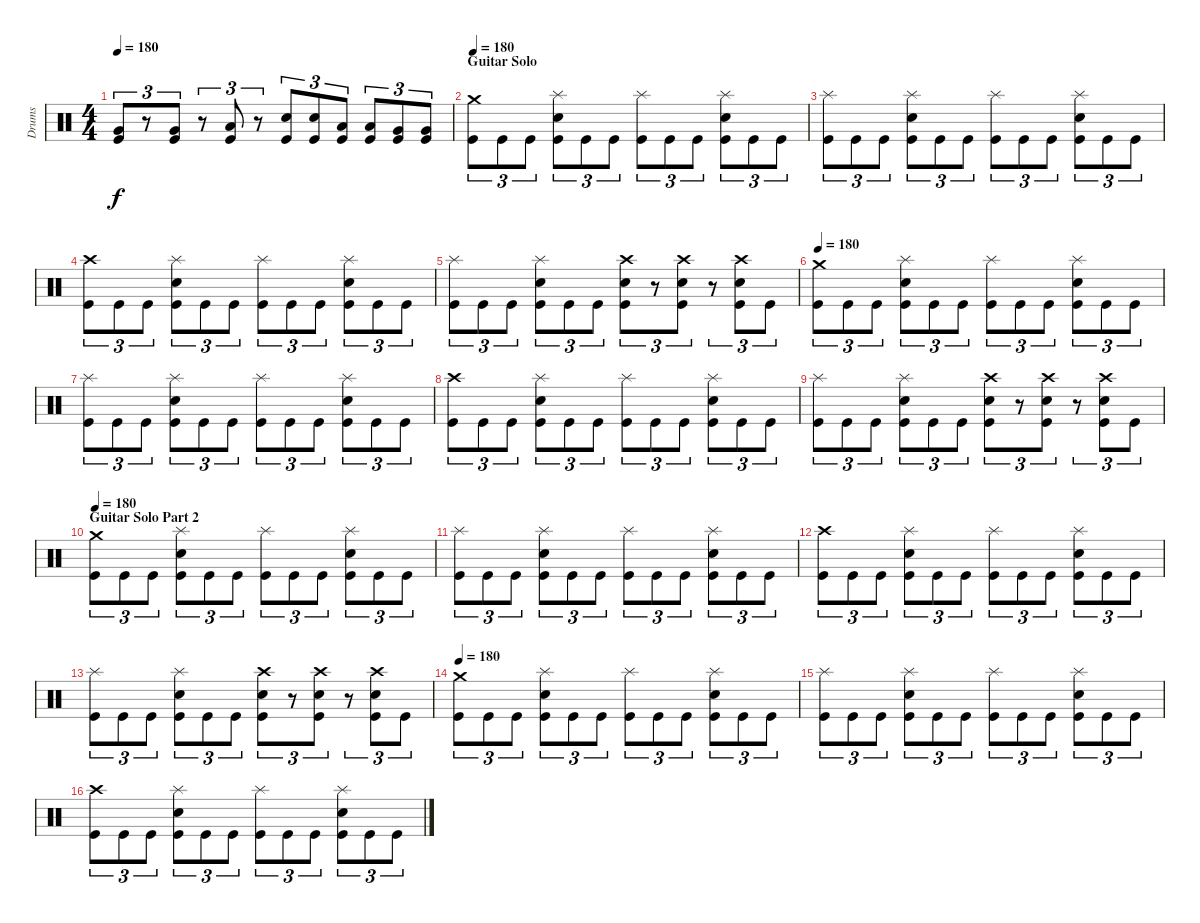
\track ("Drums" "Drums") {instrument percussion}
\staff {score}
\articulation defaults
\ts (4 4)
\tempo 180
\clef neutral
\ks c
("Very Low Tom (hit)" "Kick (hit)").8{tu (3 2) dy f} r.8{tu (3 2)} ("Very Low Tom (hit)" "Kick (hit)").8{tu (3 2)} r.8{tu (3 2)} ("Low Floor Tom (hit)" "Kick (hit)").8{tu (3 2)} r.8{tu (3 2)} ("Electric Snare (hit)" "Kick (hit)").8{tu (3 2)} ("Electric Snare (hit)" "Kick (hit)").8{tu (3 2)} ("Low Tom (hit)" "Kick (hit)").8{tu (3 2)} ("Low Tom (hit)" "Kick (hit)").8{tu (3 2)} ("Very Low Tom (hit)" "Kick (hit)").8{tu (3 2)} ("Very Low Tom (hit)" "Kick (hit)").8{tu (3 2)} |
\section ("" "Guitar Solo")
\tempo 180
("Crash medium (hit)" "Kick (hit)").8{tu (3 2)} "Kick (hit)".8{tu (3 2)} "Kick (hit)".8{tu (3 2)} ("Splash (hit)" "Electric Snare (hit)" "Kick (hit)").8{tu (3 2)} "Kick (hit)".8{tu (3 2)} "Kick (hit)".8{tu (3 2)} ("Splash (hit)" "Kick (hit)").8{tu (3 2)} "Kick (hit)".8{tu (3 2)} "Kick (hit)".8{tu (3 2)} ("Splash (hit)" "Electric Snare (hit)" "Kick (hit)").8{tu (3 2)} "Kick (hit)".8{tu (3 2)} "Kick (hit)".8{tu (3 2)} |
("Splash (hit)" "Kick (hit)").8{tu (3 2)} "Kick (hit)".8{tu (3 2)} "Kick (hit)".8{tu (3 2)} ("Splash (hit)" "Electric Snare (hit)" "Kick (hit)").8{tu (3 2)} "Kick (hit)".8{tu (3 2)} "Kick (hit)".8{tu (3 2)} ("Splash (hit)" "Kick (hit)").8{tu (3 2)} "Kick (hit)".8{tu (3 2)} "Kick (hit)".8{tu (3 2)} ("Splash (hit)" "Electric Snare (hit)" "Kick (hit)").8{tu (3 2)} "Kick (hit)".8{tu (3 2)} "Kick (hit)".8{tu (3 2)} |
("Crash high (hit)" "Kick (hit)").8{tu (3 2)} "Kick (hit)".8{tu (3 2)} "Kick (hit)".8{tu (3 2)} ("Splash (hit)" "Electric Snare (hit)" "Kick (hit)").8{tu (3 2)} "Kick (hit)".8{tu (3 2)} "Kick (hit)".8{tu (3 2)} ("Splash (hit)" "Kick (hit)").8{tu (3 2)} "Kick (hit)".8{tu (3 2)} "Kick (hit)".8{tu (3 2)} ("Splash (hit)" "Electric Snare (hit)" "Kick (hit)").8{tu (3 2)} "Kick (hit)".8{tu (3 2)} "Kick (hit)".8{tu (3 2)} |
("Splash (hit)" "Kick (hit)").8{tu (3 2)} "Kick (hit)".8{tu (3 2)} "Kick (hit)".8{tu (3 2)} ("Splash (hit)" "Electric Snare (hit)" "Kick (hit)").8{tu (3 2)} "Kick (hit)".8{tu (3 2)} "Kick (hit)".8{tu (3 2)} ("Crash high (hit)" "Electric Snare (hit)" "Kick (hit)").8{tu (3 2)} r.8{tu (3 2)} ("Crash high (hit)" "Electric Snare (hit)" "Kick (hit)").8{tu (3 2)} r.8{tu (3 2)} ("Crash high (hit)" "Electric Snare (hit)" "Kick (hit)").8{tu (3 2)} "Kick (hit)".8{tu (3 2)} |
\tempo 180
("Crash medium (hit)" "Kick (hit)").8{tu (3 2)} "Kick (hit)".8{tu (3 2)} "Kick (hit)".8{tu (3 2)} ("Splash (hit)" "Electric Snare (hit)" "Kick (hit)").8{tu (3 2)} "Kick (hit)".8{tu (3 2)} "Kick (hit)".8{tu (3 2)} ("Splash (hit)" "Kick (hit)").8{tu (3 2)} "Kick (hit)".8{tu (3 2)} "Kick (hit)".8{tu (3 2)} ("Splash (hit)" "Electric Snare (hit)" "Kick (hit)").8{tu (3 2)} "Kick (hit)".8{tu (3 2)} "Kick (hit)".8{tu (3 2)} |
("Splash (hit)" "Kick (hit)").8{tu (3 2)} "Kick (hit)".8{tu (3 2)} "Kick (hit)".8{tu (3 2)} ("Splash (hit)" "Electric Snare (hit)" "Kick (hit)").8{tu (3 2)} "Kick (hit)".8{tu (3 2)} "Kick (hit)".8{tu (3 2)} ("Splash (hit)" "Kick (hit)").8{tu (3 2)} "Kick (hit)".8{tu (3 2)} "Kick (hit)".8{tu (3 2)} ("Splash (hit)" "Electric Snare (hit)" "Kick (hit)").8{tu (3 2)} "Kick (hit)".8{tu (3 2)} "Kick (hit)".8{tu (3 2)} |
("Crash high (hit)" "Kick (hit)").8{tu (3 2)} "Kick (hit)".8{tu (3 2)} "Kick (hit)".8{tu (3 2)} ("Splash (hit)" "Electric Snare (hit)" "Kick (hit)").8{tu (3 2)} "Kick (hit)".8{tu (3 2)} "Kick (hit)".8{tu (3 2)} ("Splash (hit)" "Kick (hit)").8{tu (3 2)} "Kick (hit)".8{tu (3 2)} "Kick (hit)".8{tu (3 2)} ("Splash (hit)" "Electric Snare (hit)" "Kick (hit)").8{tu (3 2)} "Kick (hit)".8{tu (3 2)} "Kick (hit)".8{tu (3 2)} |
("Splash (hit)" "Kick (hit)").8{tu (3 2)} "Kick (hit)".8{tu (3 2)} "Kick (hit)".8{tu (3 2)} ("Splash (hit)" "Electric Snare (hit)" "Kick (hit)").8{tu (3 2)} "Kick (hit)".8{tu (3 2)} "Kick (hit)".8{tu (3 2)} ("Crash high (hit)" "Electric Snare (hit)" "Kick (hit)").8{tu (3 2)} r.8{tu (3 2)} ("Crash high (hit)" "Electric Snare (hit)" "Kick (hit)").8{tu (3 2)} r.8{tu (3 2)} ("Crash high (hit)" "Electric Snare (hit)" "Kick (hit)").8{tu (3 2)} "Kick (hit)".8{tu (3 2)} |
\section ("" "Guitar Solo Part 2")
\tempo 180
("Crash medium (hit)" "Kick (hit)").8{tu (3 2)} "Kick (hit)".8{tu (3 2)} "Kick (hit)".8{tu (3 2)} ("Splash (hit)" "Electric Snare (hit)" "Kick (hit)").8{tu (3 2)} "Kick (hit)".8{tu (3 2)} "Kick (hit)".8{tu (3 2)} ("Splash (hit)" "Kick (hit)").8{tu (3 2)} "Kick (hit)".8{tu (3 2)} "Kick (hit)".8{tu (3 2)} ("Splash (hit)" "Electric Snare (hit)" "Kick (hit)").8{tu (3 2)} "Kick (hit)".8{tu (3 2)} "Kick (hit)".8{tu (3 2)} |
("Splash (hit)" "Kick (hit)").8{tu (3 2)} "Kick (hit)".8{tu (3 2)} "Kick (hit)".8{tu (3 2)} ("Splash (hit)" "Electric Snare (hit)" "Kick (hit)").8{tu (3 2)} "Kick (hit)".8{tu (3 2)} "Kick (hit)".8{tu (3 2)} ("Splash (hit)" "Kick (hit)").8{tu (3 2)} "Kick (hit)".8{tu (3 2)} "Kick (hit)".8{tu (3 2)} ("Splash (hit)" "Electric Snare (hit)" "Kick (hit)").8{tu (3 2)} "Kick (hit)".8{tu (3 2)} "Kick (hit)".8{tu (3 2)} |
("Crash high (hit)" "Kick (hit)").8{tu (3 2)} "Kick (hit)".8{tu (3 2)} "Kick (hit)".8{tu (3 2)} ("Splash (hit)" "Electric Snare (hit)" "Kick (hit)").8{tu (3 2)} "Kick (hit)".8{tu (3 2)} "Kick (hit)".8{tu (3 2)} ("Splash (hit)" "Kick (hit)").8{tu (3 2)} "Kick (hit)".8{tu (3 2)} "Kick (hit)".8{tu (3 2)} ("Splash (hit)" "Electric Snare (hit)" "Kick (hit)").8{tu (3 2)} "Kick (hit)".8{tu (3 2)} "Kick (hit)".8{tu (3 2)} |
("Splash (hit)" "Kick (hit)").8{tu (3 2)} "Kick (hit)".8{tu (3 2)} "Kick (hit)".8{tu (3 2)} ("Splash (hit)" "Electric Snare (hit)" "Kick (hit)").8{tu (3 2)} "Kick (hit)".8{tu (3 2)} "Kick (hit)".8{tu (3 2)} ("Crash high (hit)" "Electric Snare (hit)" "Kick (hit)").8{tu (3 2)} r.8{tu (3 2)} ("Crash high (hit)" "Electric Snare (hit)" "Kick (hit)").8{tu (3 2)} r.8{tu (3 2)} ("Crash high (hit)" "Electric Snare (hit)" "Kick (hit)").8{tu (3 2)} "Kick (hit)".8{tu (3 2)} |
\tempo 180
("Crash medium (hit)" "Kick (hit)").8{tu (3 2)} "Kick (hit)".8{tu (3 2)} "Kick (hit)".8{tu (3 2)} ("Splash (hit)" "Electric Snare (hit)" "Kick (hit)").8{tu (3 2)} "Kick (hit)".8{tu (3 2)} "Kick (hit)".8{tu (3 2)} ("Splash (hit)" "Kick (hit)").8{tu (3 2)} "Kick (hit)".8{tu (3 2)} "Kick (hit)".8{tu (3 2)} ("Splash (hit)" "Electric Snare (hit)" "Kick (hit)").8{tu (3 2)} "Kick (hit)".8{tu (3 2)} "Kick (hit)".8{tu (3 2)} |
("Splash (hit)" "Kick (hit)").8{tu (3 2)} "Kick (hit)".8{tu (3 2)} "Kick (hit)".8{tu (3 2)} ("Splash (hit)" "Electric Snare (hit)" "Kick (hit)").8{tu (3 2)} "Kick (hit)".8{tu (3 2)} "Kick (hit)".8{tu (3 2)} ("Splash (hit)" "Kick (hit)").8{tu (3 2)} "Kick (hit)".8{tu (3 2)} "Kick (hit)".8{tu (3 2)} ("Splash (hit)" "Electric Snare (hit)" "Kick (hit)").8{tu (3 2)} "Kick (hit)".8{tu (3 2)} "Kick (hit)".8{tu (3 2)} |
("Crash high (hit)" "Kick (hit)").8{tu (3 2)} "Kick (hit)".8{tu (3 2)} "Kick (hit)".8{tu (3 2)} ("Splash (hit)" "Electric Snare (hit)" "Kick (hit)").8{tu (3 2)} "Kick (hit)".8{tu (3 2)} "Kick (hit)".8{tu (3 2)} ("Splash (hit)" "Kick (hit)").8{tu (3 2)} "Kick (hit)".8{tu (3 2)} "Kick (hit)".8{tu (3 2)} ("Splash (hit)" "Electric Snare (hit)" "Kick (hit)").8{tu (3 2)} "Kick (hit)".8{tu (3 2)} "Kick (hit)".8{tu (3 2)}
